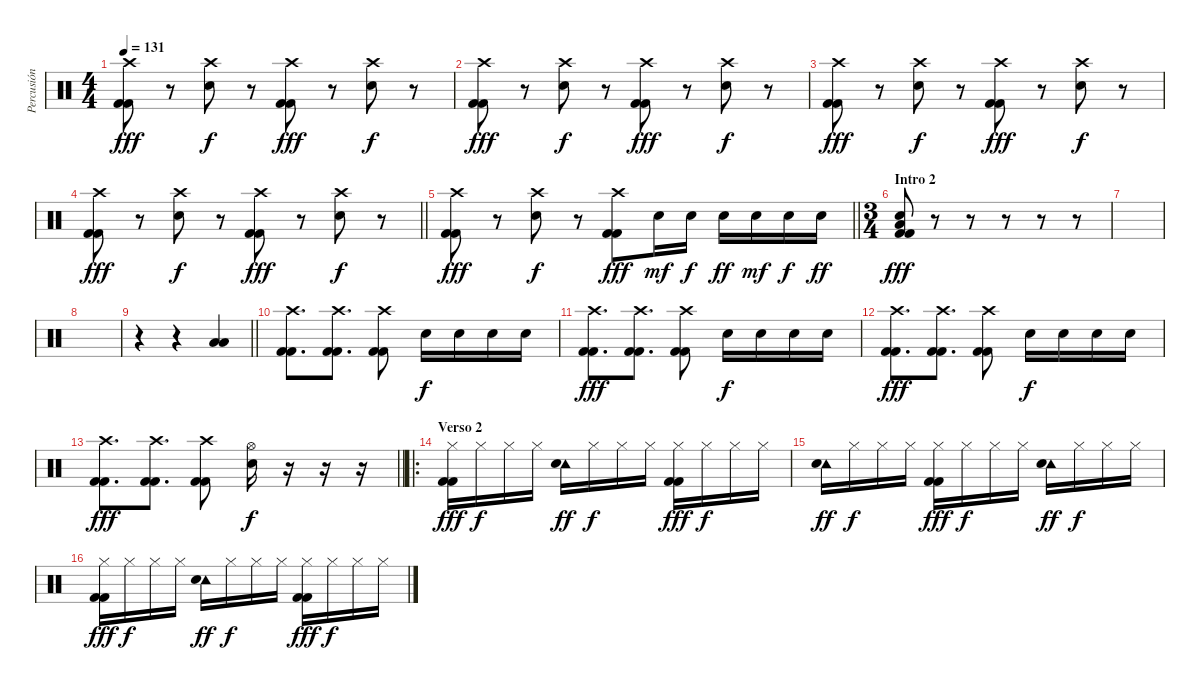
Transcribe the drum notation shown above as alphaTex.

\track ("Percusión" "Percusión") {instrument percussion}
\staff {score}
\articulation defaults
\ts (4 4)
\tempo 131
\clef neutral
\ks c
("Crash high (hit)" "Kick (hit) 2" "Kick (hit) 2").8{dy fff} r.8 ("Crash high (hit)" "Electric Snare (hit)").8{dy f} r.8 ("Crash high (hit)" "Kick (hit) 2" "Kick (hit) 2").8{dy fff} r.8 ("Crash high (hit)" "Electric Snare (hit)").8{dy f} r.8 |
("Crash high (hit)" "Kick (hit) 2" "Kick (hit) 2").8{dy fff} r.8 ("Crash high (hit)" "Electric Snare (hit)").8{dy f} r.8 ("Crash high (hit)" "Kick (hit) 2" "Kick (hit) 2").8{dy fff} r.8 ("Crash high (hit)" "Electric Snare (hit)").8{dy f} r.8 |
("Crash high (hit)" "Kick (hit) 2" "Kick (hit) 2").8{dy fff} r.8 ("Crash high (hit)" "Electric Snare (hit)").8{dy f} r.8 ("Crash high (hit)" "Kick (hit) 2" "Kick (hit) 2").8{dy fff} r.8 ("Crash high (hit)" "Electric Snare (hit)").8{dy f} r.8 |
\barLineRight lightlight
("Crash high (hit)" "Kick (hit) 2" "Kick (hit) 2").8{dy fff} r.8 ("Crash high (hit)" "Electric Snare (hit)").8{dy f} r.8 ("Crash high (hit)" "Kick (hit) 2" "Kick (hit) 2").8{dy fff} r.8 ("Crash high (hit)" "Electric Snare (hit)").8{dy f} r.8 |
\barLineRight lightlight
("Crash high (hit)" "Kick (hit) 2" "Kick (hit) 2").8{dy fff} r.8 ("Crash high (hit)" "Electric Snare (hit)").8{dy f} r.8 ("Crash high (hit)" "Kick (hit) 2" "Kick (hit) 2").8{dy fff} "Electric Snare (hit)".16{dy mf} "Electric Snare (hit)".16{dy f} "Electric Snare (hit)".16{dy ff} "Electric Snare (hit)".16{dy mf} "Electric Snare (hit)".16{dy f} "Electric Snare (hit)".16{dy ff} |
\ts (3 4)
\section ("" "Intro 2")
("Electric Snare (hit)" "Low Floor Tom (hit)" "Kick (hit) 2" "Kick (hit) 2").8{dy fff} r.8 r.8 r.8 r.8 r.8 |
|
|
\barLineRight lightlight
r.4 r.4 ("Low Floor Tom (hit)" "Low Floor Tom (hit)").4 |
("Crash high (hit)" "Kick (hit) 2" "Kick (hit) 2").8{d} ("Crash high (hit)" "Kick (hit) 2" "Kick (hit) 2").8{d} ("Crash high (hit)" "Kick (hit) 2" "Kick (hit) 2").8 "Electric Snare (hit)".16{dy f} "Electric Snare (hit)".16 "Electric Snare (hit)".16 "Electric Snare (hit)".16 |
("Crash high (hit)" "Kick (hit) 2" "Kick (hit) 2").8{d dy fff} ("Crash high (hit)" "Kick (hit) 2" "Kick (hit) 2").8{d} ("Crash high (hit)" "Kick (hit) 2" "Kick (hit) 2").8 "Electric Snare (hit)".16{dy f} "Electric Snare (hit)".16 "Electric Snare (hit)".16 "Electric Snare (hit)".16 |
("Crash high (hit)" "Kick (hit) 2" "Kick (hit) 2").8{d dy fff} ("Crash high (hit)" "Kick (hit) 2" "Kick (hit) 2").8{d} ("Crash high (hit)" "Kick (hit) 2" "Kick (hit) 2").8 "Electric Snare (hit)".16{dy f} "Electric Snare (hit)".16 "Electric Snare (hit)".16 "Electric Snare (hit)".16 |
\barLineRight lightlight
("Crash high (hit)" "Kick (hit) 2" "Kick (hit) 2").8{d dy fff} ("Crash high (hit)" "Kick (hit) 2" "Kick (hit) 2").8{d} ("Crash high (hit)" "Kick (hit) 2" "Kick (hit) 2").8 ("Hi-Hat (open)" "Electric Snare (hit)").16{dy f} r.16 r.16 r.16 |
\ro
\section ("" "Verso 2")
("Hi-Hat (closed)" "Kick (hit) 2" "Kick (hit) 2").16{dy fff} "Hi-Hat (closed)".16{dy f} "Hi-Hat (closed)".16 "Hi-Hat (closed)".16 ("Tambourine (hit)" "Electric Snare (hit)").16{dy ff} "Hi-Hat (closed)".16{dy f} "Hi-Hat (closed)".16 "Hi-Hat (closed)".16 ("Hi-Hat (closed)" "Kick (hit) 2" "Kick (hit) 2").16{dy fff} "Hi-Hat (closed)".16{dy f} "Hi-Hat (closed)".16 "Hi-Hat (closed)".16 |
("Tambourine (hit)" "Electric Snare (hit)").16{dy ff} "Hi-Hat (closed)".16{dy f} "Hi-Hat (closed)".16 "Hi-Hat (closed)".16 ("Hi-Hat (closed)" "Kick (hit) 2" "Kick (hit) 2").16{dy fff} "Hi-Hat (closed)".16{dy f} "Hi-Hat (closed)".16 "Hi-Hat (closed)".16 ("Tambourine (hit)" "Electric Snare (hit)").16{dy ff} "Hi-Hat (closed)".16{dy f} "Hi-Hat (closed)".16 "Hi-Hat (closed)".16 |
("Hi-Hat (closed)" "Kick (hit) 2" "Kick (hit) 2").16{dy fff} "Hi-Hat (closed)".16{dy f} "Hi-Hat (closed)".16 "Hi-Hat (closed)".16 ("Tambourine (hit)" "Electric Snare (hit)").16{dy ff} "Hi-Hat (closed)".16{dy f} "Hi-Hat (closed)".16 "Hi-Hat (closed)".16 ("Hi-Hat (closed)" "Kick (hit) 2" "Kick (hit) 2").16{dy fff} "Hi-Hat (closed)".16{dy f} "Hi-Hat (closed)".16 "Hi-Hat (closed)".16
